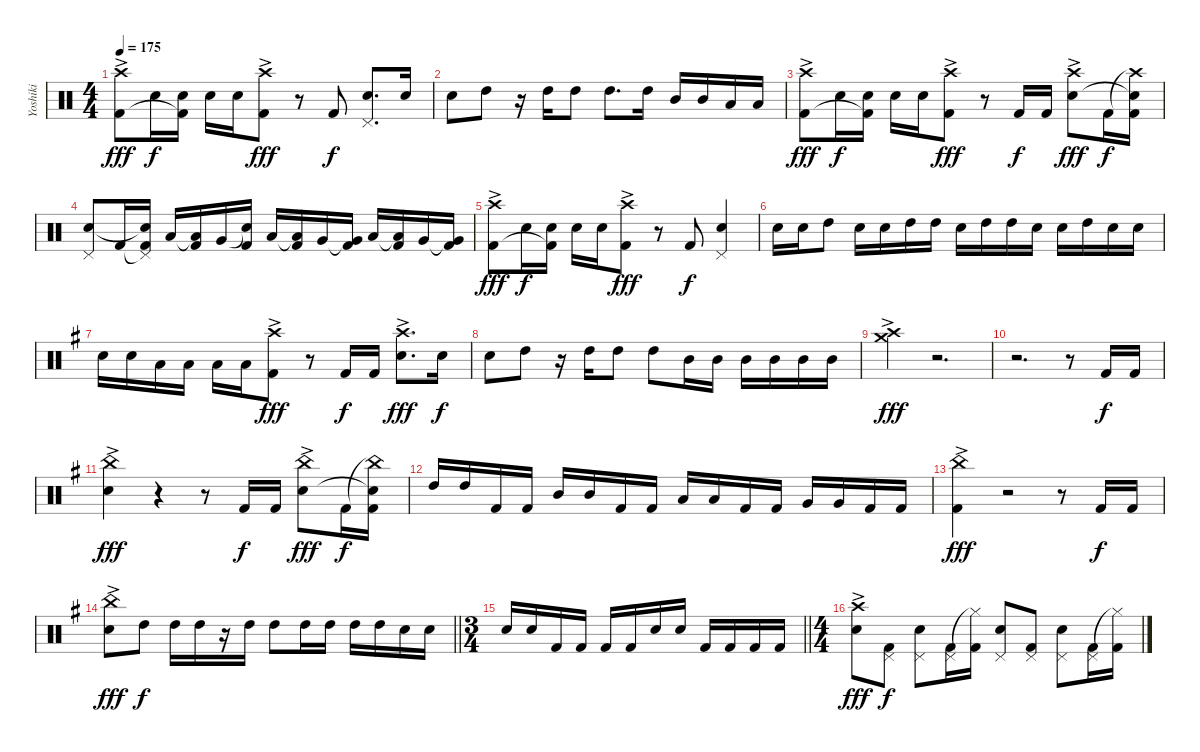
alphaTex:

\track ("Yoshiki" "Yoshiki") {instrument percussion}
\staff {score}
\articulation defaults
\ts (4 4)
\tempo 175
\clef neutral
\ks c
("Crash high (hit)"{ac} "Kick (hit) 2"{ac}).8{dy fff} "Snare (hit) 2".16{dy f} ("Snare (hit) 2" "Kick (hit) 2"{t}).16 "Snare (hit) 2".16 "Snare (hit) 2".16 ("Crash high (hit)"{ac} "Kick (hit) 2"{ac}).8{dy fff} r.8 "Kick (hit) 2".8{dy f} ("Pedal Hi-Hat (hit)" "Snare (hit) 2").8{d} "Snare (hit) 2".16 |
"Snare (hit) 2".8 "High Tom (hit)".8 r.16 "High Tom (hit)".16 "High Tom (hit)".8 "High Tom (hit)".8{d} "High Tom (hit)".16 "Mid Tom (hit)".16 "Mid Tom (hit)".16 "Low Tom (hit)".16 "Low Tom (hit)".16 |
("Crash high (hit)"{ac} "Kick (hit) 2"{ac}).8{dy fff} "Snare (hit) 2".16{dy f} ("Snare (hit) 2" "Kick (hit) 2"{t}).16 "Snare (hit) 2".16 "Snare (hit) 2".16 ("Crash high (hit)"{ac} "Kick (hit) 2"{ac}).8{dy fff} r.8 "Kick (hit) 2".16{dy f} "Kick (hit) 2".16 ("Crash high (hit)"{ac} "Snare (hit) 2"{ac}).8{dy fff} "Kick (hit) 2".16{dy f} ("Crash high (hit)"{t} "Snare (hit) 2"{t} "Kick (hit) 2").16 |
("Pedal Hi-Hat (hit)" "Snare (hit) 2").8 "Kick (hit) 2".16 ("Pedal Hi-Hat (hit)"{t} "Snare (hit) 2"{t} "Kick (hit) 2").16 "Low Tom (hit)".16 ("Low Tom (hit)"{t} "Kick (hit) 2").16 "Very Low Tom (hit)".16 ("Snare (hit)"{t} "Kick (hit) 2").16 "Low Tom (hit)".16 ("Low Tom (hit)"{t} "Kick (hit) 2").16 "Very Low Tom (hit)".16 ("Very Low Tom (hit)"{t} "Kick (hit) 2").16 "Low Tom (hit)".16 ("Low Tom (hit)"{t} "Kick (hit) 2").16 "Very Low Tom (hit)".16 ("Very Low Tom (hit)"{t} "Kick (hit) 2").16 |
("Crash high (hit)"{ac} "Kick (hit) 2"{ac}).8{dy fff} "Snare (hit) 2".16{dy f} ("Snare (hit) 2" "Kick (hit) 2"{t}).16 "Snare (hit) 2".16 "Snare (hit) 2".16 ("Crash high (hit)"{ac} "Kick (hit) 2"{ac}).8{dy fff} r.8 "Kick (hit) 2".8{dy f} ("Pedal Hi-Hat (hit)" "Snare (hit) 2").4 |
"Snare (hit) 2".16 "Snare (hit) 2".16 "High Tom (hit)".8 "Snare (hit) 2".16 "Snare (hit) 2".16 "High Tom (hit)".16 "High Tom (hit)".16 "Snare (hit) 2".16 "High Tom (hit)".16 "High Tom (hit)".16 "Snare (hit) 2".16 "Snare (hit) 2".16 "High Tom (hit)".16 "Snare (hit) 2".16 "Snare (hit) 2".16 |
\ks g "Snare (hit) 2".16 "Snare (hit) 2".16 "Low Tom (hit)".16 "Low Tom (hit)".16 "Low Tom (hit)".16 "Low Tom (hit)".16
("Crash high (hit)"{ac} "Kick (hit) 2"{ac}).8{dy fff} r.8 "Kick (hit) 2".16{dy f} "Kick (hit) 2".16 ("Crash high (hit)"{ac} "Snare (hit) 2"{ac}).8{d dy fff} "Snare (hit) 2".16{dy f} |
"Snare (hit) 2".8 "High Tom (hit)".8 r.16 "High Tom (hit)".16 "High Tom (hit)".8 "High Tom (hit)".8 "Mid Tom (hit)".16 "Mid Tom (hit)".16 "Mid Tom (hit)".16 "Mid Tom (hit)".16 "Mid Tom (hit)".16 "Mid Tom (hit)".16 |
("Crash medium (hit)"{ac} "Crash high (hit)"{ac}).4{dy fff} r.2{d} |
r.2{d} r.8 "Kick (hit) 2".16{dy f} "Kick (hit) 2".16 |
("China (hit)"{ac} "Snare (hit) 2"{ac}).4{dy fff} r.4 r.8 "Kick (hit) 2".16{dy f} "Kick (hit) 2".16 ("China (hit)"{ac} "Snare (hit) 2"{ac}).8{dy fff} "Kick (hit) 2".16{dy f} ("China (hit)"{t} "Snare (hit) 2"{t} "Kick (hit) 2").16 |
"High Tom (hit)".16 "High Tom (hit)".16 "Kick (hit) 2".16 "Kick (hit) 2".16 "Mid Tom (hit)".16 "Mid Tom (hit)".16 "Kick (hit) 2".16 "Kick (hit) 2".16 "Low Tom (hit)".16 "Low Tom (hit)".16 "Kick (hit) 2".16 "Kick (hit) 2".16 "Very Low Tom (hit)".16 "Very Low Tom (hit)".16 "Kick (hit) 2".16 "Kick (hit) 2".16 |
("China (hit)"{ac} "Kick (hit) 2"{ac}).4{dy fff} r.2 r.8 "Kick (hit) 2".16{dy f} "Kick (hit) 2".16 |
\barLineRight lightlight
("China (hit)"{ac} "Snare (hit) 2"{ac}).8{dy fff} "High Tom (hit)".8{dy f} "High Tom (hit)".16 "High Tom (hit)".16 r.16 "High Tom (hit)".16 "High Tom (hit)".8 "High Tom (hit)".16 "High Tom (hit)".16 "High Tom (hit)".16 "High Tom (hit)".16 "Snare (hit) 2".16 "Snare (hit) 2".16 |
\ts (3 4)
\barLineRight lightlight "Snare (hit) 2".16 "Snare (hit) 2".16 "Kick (hit) 2".16 "Kick (hit) 2".16 "Kick (hit) 2".16 "Kick (hit) 2".16 "Snare (hit) 2".16 "Snare (hit) 2".16 "Kick (hit) 2".16 "Kick (hit) 2".16 "Kick (hit) 2".16 "Kick (hit) 2".16
|
\ts (4 4)
("Crash high (hit)"{ac} "Snare (hit) 2"{ac}).8{dy fff} ("Pedal Hi-Hat (hit)" "Kick (hit) 2").8{dy f} ("Pedal Hi-Hat (hit)" "Snare (hit) 2").8 ("Pedal Hi-Hat (hit)" "Kick (hit) 2").16 ("Hi-Hat (closed)"{t} "Kick (hit) 2").16 ("Pedal Hi-Hat (hit)" "Snare (hit) 2").8 ("Pedal Hi-Hat (hit)" "Kick (hit) 2").8 ("Pedal Hi-Hat (hit)" "Snare (hit) 2").8 ("Pedal Hi-Hat (hit)" "Kick (hit) 2").16 ("Hi-Hat (closed)"{t} "Kick (hit) 2").16
